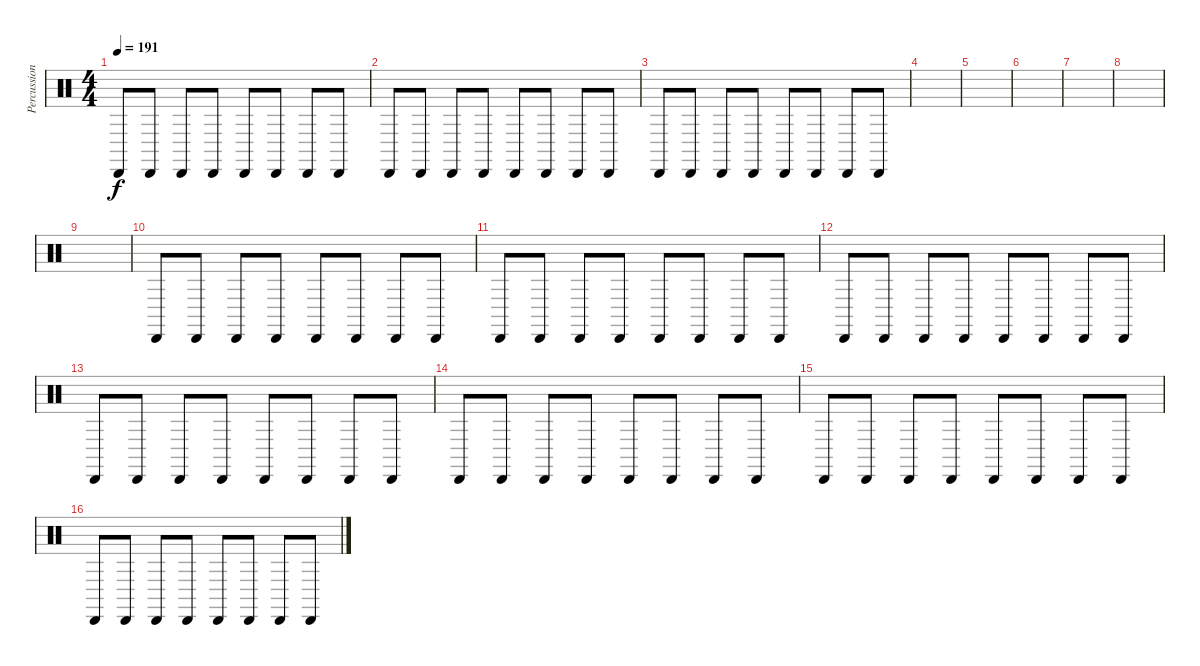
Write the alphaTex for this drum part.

\track ("Percussion" "Percussion") {instrument percussion}
\staff {score}
\articulation defaults
\ts (4 4)
\tempo 191
\clef neutral
\ks c "Cabasa (hit)".8{dy f} "Cabasa (hit)".8 "Cabasa (hit)".8 "Cabasa (hit)".8 "Cabasa (hit)".8 "Cabasa (hit)".8 "Cabasa (hit)".8 "Cabasa (hit)".8
|
"Cabasa (hit)".8 "Cabasa (hit)".8 "Cabasa (hit)".8 "Cabasa (hit)".8 "Cabasa (hit)".8 "Cabasa (hit)".8 "Cabasa (hit)".8 "Cabasa (hit)".8 |
"Cabasa (hit)".8 "Cabasa (hit)".8 "Cabasa (hit)".8 "Cabasa (hit)".8 "Cabasa (hit)".8 "Cabasa (hit)".8 "Cabasa (hit)".8 "Cabasa (hit)".8 |
|
|
|
|
|
|
"Cabasa (hit)".8 "Cabasa (hit)".8 "Cabasa (hit)".8 "Cabasa (hit)".8 "Cabasa (hit)".8 "Cabasa (hit)".8 "Cabasa (hit)".8 "Cabasa (hit)".8 |
"Cabasa (hit)".8 "Cabasa (hit)".8 "Cabasa (hit)".8 "Cabasa (hit)".8 "Cabasa (hit)".8 "Cabasa (hit)".8 "Cabasa (hit)".8 "Cabasa (hit)".8 |
"Cabasa (hit)".8 "Cabasa (hit)".8 "Cabasa (hit)".8 "Cabasa (hit)".8 "Cabasa (hit)".8 "Cabasa (hit)".8 "Cabasa (hit)".8 "Cabasa (hit)".8 |
"Cabasa (hit)".8 "Cabasa (hit)".8 "Cabasa (hit)".8 "Cabasa (hit)".8 "Cabasa (hit)".8 "Cabasa (hit)".8 "Cabasa (hit)".8 "Cabasa (hit)".8 |
"Cabasa (hit)".8 "Cabasa (hit)".8 "Cabasa (hit)".8 "Cabasa (hit)".8 "Cabasa (hit)".8 "Cabasa (hit)".8 "Cabasa (hit)".8 "Cabasa (hit)".8 |
"Cabasa (hit)".8 "Cabasa (hit)".8 "Cabasa (hit)".8 "Cabasa (hit)".8 "Cabasa (hit)".8 "Cabasa (hit)".8 "Cabasa (hit)".8 "Cabasa (hit)".8 |
"Cabasa (hit)".8 "Cabasa (hit)".8 "Cabasa (hit)".8 "Cabasa (hit)".8 "Cabasa (hit)".8 "Cabasa (hit)".8 "Cabasa (hit)".8 "Cabasa (hit)".8
